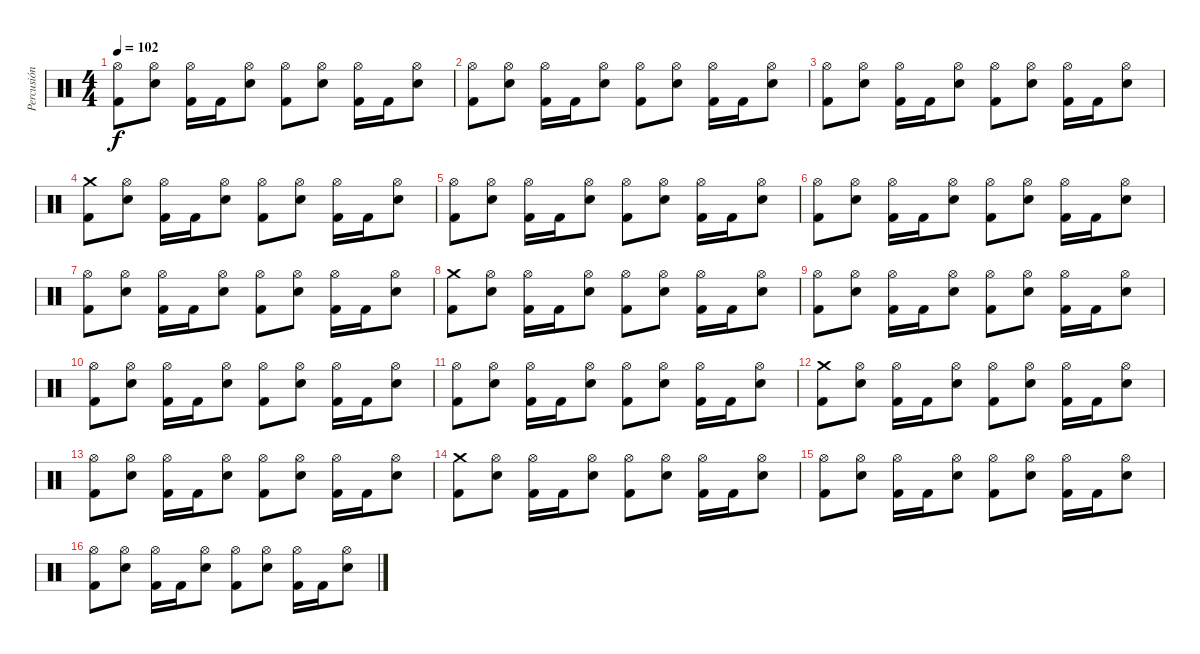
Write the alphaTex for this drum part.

\track ("Percusión" "Percusión") {instrument percussion}
\staff {score}
\articulation defaults
\ts (4 4)
\tempo 102
\clef neutral
\ks c
("Kick (hit) 2" "Hi-Hat (open)").8{dy f} ("Electric Snare (hit)" "Hi-Hat (open)").8 ("Kick (hit) 2" "Hi-Hat (open)").16 "Kick (hit) 2".16 ("Electric Snare (hit)" "Hi-Hat (open)").8 ("Kick (hit) 2" "Hi-Hat (open)").8 ("Electric Snare (hit)" "Hi-Hat (open)").8 ("Kick (hit) 2" "Hi-Hat (open)").16 "Kick (hit) 2".16 ("Electric Snare (hit)" "Hi-Hat (open)").8 |
("Kick (hit) 2" "Hi-Hat (open)").8 ("Electric Snare (hit)" "Hi-Hat (open)").8 ("Kick (hit) 2" "Hi-Hat (open)").16 "Kick (hit) 2".16 ("Electric Snare (hit)" "Hi-Hat (open)").8 ("Kick (hit) 2" "Hi-Hat (open)").8 ("Electric Snare (hit)" "Hi-Hat (open)").8 ("Kick (hit) 2" "Hi-Hat (open)").16 "Kick (hit) 2".16 ("Electric Snare (hit)" "Hi-Hat (open)").8 |
("Kick (hit) 2" "Hi-Hat (open)").8 ("Electric Snare (hit)" "Hi-Hat (open)").8 ("Kick (hit) 2" "Hi-Hat (open)").16 "Kick (hit) 2".16 ("Electric Snare (hit)" "Hi-Hat (open)").8 ("Kick (hit) 2" "Hi-Hat (open)").8 ("Electric Snare (hit)" "Hi-Hat (open)").8 ("Kick (hit) 2" "Hi-Hat (open)").16 "Kick (hit) 2".16 ("Electric Snare (hit)" "Hi-Hat (open)").8 |
("Kick (hit) 2" "Crash medium (hit)").8 ("Electric Snare (hit)" "Hi-Hat (open)").8 ("Kick (hit) 2" "Hi-Hat (open)").16 "Kick (hit) 2".16 ("Electric Snare (hit)" "Hi-Hat (open)").8 ("Kick (hit) 2" "Hi-Hat (open)").8 ("Electric Snare (hit)" "Hi-Hat (open)").8 ("Kick (hit) 2" "Hi-Hat (open)").16 "Kick (hit) 2".16 ("Electric Snare (hit)" "Hi-Hat (open)").8 |
("Kick (hit) 2" "Hi-Hat (open)").8 ("Electric Snare (hit)" "Hi-Hat (open)").8 ("Kick (hit) 2" "Hi-Hat (open)").16 "Kick (hit) 2".16 ("Electric Snare (hit)" "Hi-Hat (open)").8 ("Kick (hit) 2" "Hi-Hat (open)").8 ("Electric Snare (hit)" "Hi-Hat (open)").8 ("Kick (hit) 2" "Hi-Hat (open)").16 "Kick (hit) 2".16 ("Electric Snare (hit)" "Hi-Hat (open)").8 |
("Kick (hit) 2" "Hi-Hat (open)").8 ("Electric Snare (hit)" "Hi-Hat (open)").8 ("Kick (hit) 2" "Hi-Hat (open)").16 "Kick (hit) 2".16 ("Electric Snare (hit)" "Hi-Hat (open)").8 ("Kick (hit) 2" "Hi-Hat (open)").8 ("Electric Snare (hit)" "Hi-Hat (open)").8 ("Kick (hit) 2" "Hi-Hat (open)").16 "Kick (hit) 2".16 ("Electric Snare (hit)" "Hi-Hat (open)").8 |
("Kick (hit) 2" "Hi-Hat (open)").8 ("Electric Snare (hit)" "Hi-Hat (open)").8 ("Kick (hit) 2" "Hi-Hat (open)").16 "Kick (hit) 2".16 ("Electric Snare (hit)" "Hi-Hat (open)").8 ("Kick (hit) 2" "Hi-Hat (open)").8 ("Electric Snare (hit)" "Hi-Hat (open)").8 ("Kick (hit) 2" "Hi-Hat (open)").16 "Kick (hit) 2".16 ("Electric Snare (hit)" "Hi-Hat (open)").8 |
("Kick (hit) 2" "Crash medium (hit)").8 ("Electric Snare (hit)" "Hi-Hat (open)").8 ("Kick (hit) 2" "Hi-Hat (open)").16 "Kick (hit) 2".16 ("Electric Snare (hit)" "Hi-Hat (open)").8 ("Kick (hit) 2" "Hi-Hat (open)").8 ("Electric Snare (hit)" "Hi-Hat (open)").8 ("Kick (hit) 2" "Hi-Hat (open)").16 "Kick (hit) 2".16 ("Electric Snare (hit)" "Hi-Hat (open)").8 |
("Kick (hit) 2" "Hi-Hat (open)").8 ("Electric Snare (hit)" "Hi-Hat (open)").8 ("Kick (hit) 2" "Hi-Hat (open)").16 "Kick (hit) 2".16 ("Electric Snare (hit)" "Hi-Hat (open)").8 ("Kick (hit) 2" "Hi-Hat (open)").8 ("Electric Snare (hit)" "Hi-Hat (open)").8 ("Kick (hit) 2" "Hi-Hat (open)").16 "Kick (hit) 2".16 ("Electric Snare (hit)" "Hi-Hat (open)").8 |
("Kick (hit) 2" "Hi-Hat (open)").8 ("Electric Snare (hit)" "Hi-Hat (open)").8 ("Kick (hit) 2" "Hi-Hat (open)").16 "Kick (hit) 2".16 ("Electric Snare (hit)" "Hi-Hat (open)").8 ("Kick (hit) 2" "Hi-Hat (open)").8 ("Electric Snare (hit)" "Hi-Hat (open)").8 ("Kick (hit) 2" "Hi-Hat (open)").16 "Kick (hit) 2".16 ("Electric Snare (hit)" "Hi-Hat (open)").8 |
("Kick (hit) 2" "Hi-Hat (open)").8 ("Electric Snare (hit)" "Hi-Hat (open)").8 ("Kick (hit) 2" "Hi-Hat (open)").16 "Kick (hit) 2".16 ("Electric Snare (hit)" "Hi-Hat (open)").8 ("Kick (hit) 2" "Hi-Hat (open)").8 ("Electric Snare (hit)" "Hi-Hat (open)").8 ("Kick (hit) 2" "Hi-Hat (open)").16 "Kick (hit) 2".16 ("Electric Snare (hit)" "Hi-Hat (open)").8 |
("Kick (hit) 2" "Crash medium (hit)").8 ("Electric Snare (hit)" "Hi-Hat (open)").8 ("Kick (hit) 2" "Hi-Hat (open)").16 "Kick (hit) 2".16 ("Electric Snare (hit)" "Hi-Hat (open)").8 ("Kick (hit) 2" "Hi-Hat (open)").8 ("Electric Snare (hit)" "Hi-Hat (open)").8 ("Kick (hit) 2" "Hi-Hat (open)").16 "Kick (hit) 2".16 ("Electric Snare (hit)" "Hi-Hat (open)").8 |
("Kick (hit) 2" "Hi-Hat (open)").8 ("Electric Snare (hit)" "Hi-Hat (open)").8 ("Kick (hit) 2" "Hi-Hat (open)").16 "Kick (hit) 2".16 ("Electric Snare (hit)" "Hi-Hat (open)").8 ("Kick (hit) 2" "Hi-Hat (open)").8 ("Electric Snare (hit)" "Hi-Hat (open)").8 ("Kick (hit) 2" "Hi-Hat (open)").16 "Kick (hit) 2".16 ("Electric Snare (hit)" "Hi-Hat (open)").8 |
("Kick (hit) 2" "Crash medium (hit)").8 ("Electric Snare (hit)" "Hi-Hat (open)").8 ("Kick (hit) 2" "Hi-Hat (open)").16 "Kick (hit) 2".16 ("Electric Snare (hit)" "Hi-Hat (open)").8 ("Kick (hit) 2" "Hi-Hat (open)").8 ("Electric Snare (hit)" "Hi-Hat (open)").8 ("Kick (hit) 2" "Hi-Hat (open)").16 "Kick (hit) 2".16 ("Electric Snare (hit)" "Hi-Hat (open)").8 |
("Kick (hit) 2" "Hi-Hat (open)").8 ("Electric Snare (hit)" "Hi-Hat (open)").8 ("Kick (hit) 2" "Hi-Hat (open)").16 "Kick (hit) 2".16 ("Electric Snare (hit)" "Hi-Hat (open)").8 ("Kick (hit) 2" "Hi-Hat (open)").8 ("Electric Snare (hit)" "Hi-Hat (open)").8 ("Kick (hit) 2" "Hi-Hat (open)").16 "Kick (hit) 2".16 ("Electric Snare (hit)" "Hi-Hat (open)").8 |
("Kick (hit) 2" "Hi-Hat (open)").8 ("Electric Snare (hit)" "Hi-Hat (open)").8 ("Kick (hit) 2" "Hi-Hat (open)").16 "Kick (hit) 2".16 ("Electric Snare (hit)" "Hi-Hat (open)").8 ("Kick (hit) 2" "Hi-Hat (open)").8 ("Electric Snare (hit)" "Hi-Hat (open)").8 ("Kick (hit) 2" "Hi-Hat (open)").16 "Kick (hit) 2".16 ("Electric Snare (hit)" "Hi-Hat (open)").8
